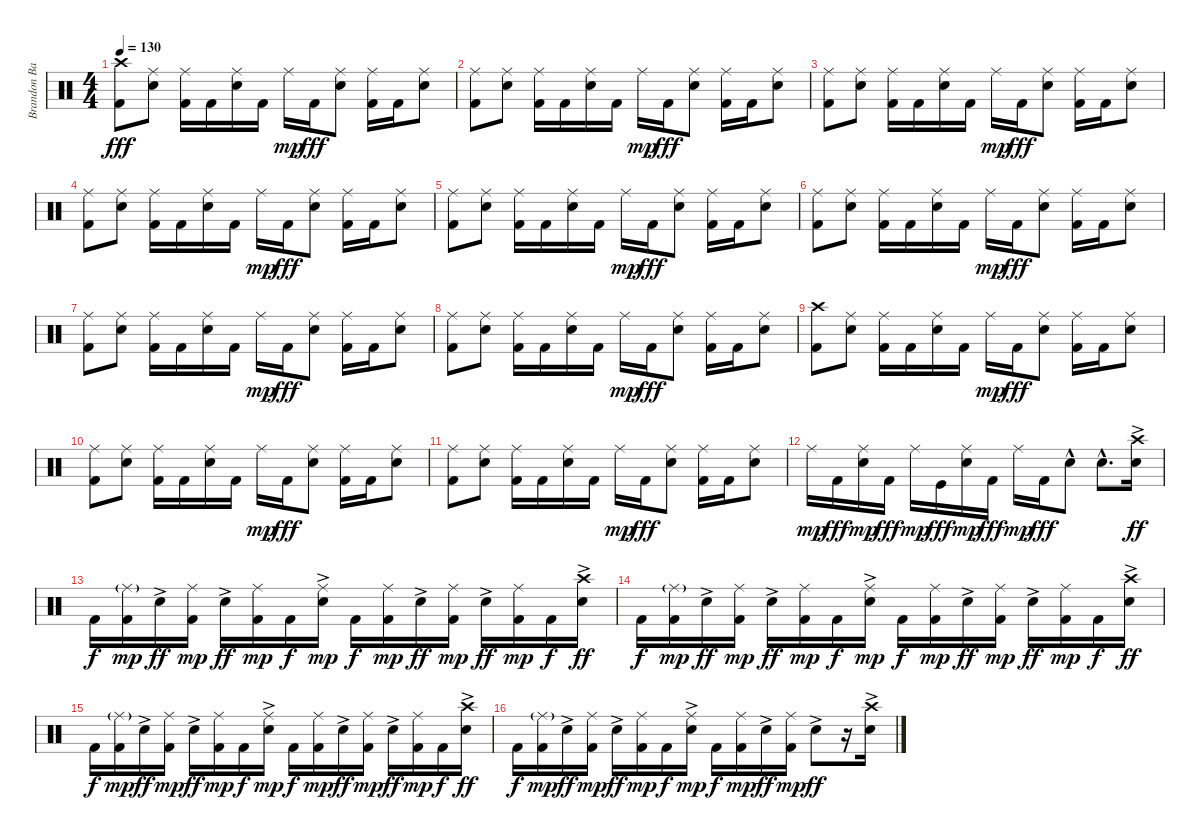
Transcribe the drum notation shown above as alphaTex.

\track ("Brandon Barnes - Drums" "Brandon Ba") {instrument percussion}
\staff {score}
\articulation defaults
\ts (4 4)
\tempo 130
\clef neutral
\ks c
("Crash high (hit)" "Kick (hit) 2").8{dy fff} ("Ride (middle)" "Snare (hit) 2").8 ("Ride (middle)" "Kick (hit) 2").16 "Kick (hit) 2".16 ("Ride (middle)" "Snare (hit) 2").16 "Kick (hit) 2".16 "Ride (middle)".16{dy mp} "Kick (hit) 2".16{dy fff} ("Ride (middle)" "Snare (hit) 2").8 ("Ride (middle)" "Kick (hit) 2").16 "Kick (hit) 2".16 ("Ride (middle)" "Snare (hit) 2").8 |
("Ride (middle)" "Kick (hit) 2").8 ("Ride (middle)" "Snare (hit) 2").8 ("Ride (middle)" "Kick (hit) 2").16 "Kick (hit) 2".16 ("Ride (middle)" "Snare (hit) 2").16 "Kick (hit) 2".16 "Ride (middle)".16{dy mp} "Kick (hit) 2".16{dy fff} ("Ride (middle)" "Snare (hit) 2").8 ("Ride (middle)" "Kick (hit) 2").16 "Kick (hit) 2".16 ("Ride (middle)" "Snare (hit) 2").8 |
("Ride (middle)" "Kick (hit) 2").8 ("Ride (middle)" "Snare (hit) 2").8 ("Ride (middle)" "Kick (hit) 2").16 "Kick (hit) 2".16 ("Ride (middle)" "Snare (hit) 2").16 "Kick (hit) 2".16 "Ride (middle)".16{dy mp} "Kick (hit) 2".16{dy fff} ("Ride (middle)" "Snare (hit) 2").8 ("Ride (middle)" "Kick (hit) 2").16 "Kick (hit) 2".16 ("Ride (middle)" "Snare (hit) 2").8 |
("Ride (middle)" "Kick (hit) 2").8 ("Ride (middle)" "Snare (hit) 2").8 ("Ride (middle)" "Kick (hit) 2").16 "Kick (hit) 2".16 ("Ride (middle)" "Snare (hit) 2").16 "Kick (hit) 2".16 "Ride (middle)".16{dy mp} "Kick (hit) 2".16{dy fff} ("Ride (middle)" "Snare (hit) 2").8 ("Ride (middle)" "Kick (hit) 2").16 "Kick (hit) 2".16 ("Ride (middle)" "Snare (hit) 2").8 |
("Ride (middle)" "Kick (hit) 2").8 ("Ride (middle)" "Snare (hit) 2").8 ("Ride (middle)" "Kick (hit) 2").16 "Kick (hit) 2".16 ("Ride (middle)" "Snare (hit) 2").16 "Kick (hit) 2".16 "Ride (middle)".16{dy mp} "Kick (hit) 2".16{dy fff} ("Ride (middle)" "Snare (hit) 2").8 ("Ride (middle)" "Kick (hit) 2").16 "Kick (hit) 2".16 ("Ride (middle)" "Snare (hit) 2").8 |
("Ride (middle)" "Kick (hit) 2").8 ("Ride (middle)" "Snare (hit) 2").8 ("Ride (middle)" "Kick (hit) 2").16 "Kick (hit) 2".16 ("Ride (middle)" "Snare (hit) 2").16 "Kick (hit) 2".16 "Ride (middle)".16{dy mp} "Kick (hit) 2".16{dy fff} ("Ride (middle)" "Snare (hit) 2").8 ("Ride (middle)" "Kick (hit) 2").16 "Kick (hit) 2".16 ("Ride (middle)" "Snare (hit) 2").8 |
("Ride (middle)" "Kick (hit) 2").8 ("Ride (middle)" "Snare (hit) 2").8 ("Ride (middle)" "Kick (hit) 2").16 "Kick (hit) 2".16 ("Ride (middle)" "Snare (hit) 2").16 "Kick (hit) 2".16 "Ride (middle)".16{dy mp} "Kick (hit) 2".16{dy fff} ("Ride (middle)" "Snare (hit) 2").8 ("Ride (middle)" "Kick (hit) 2").16 "Kick (hit) 2".16 ("Ride (middle)" "Snare (hit) 2").8 |
("Ride (middle)" "Kick (hit) 2").8 ("Ride (middle)" "Snare (hit) 2").8 ("Ride (middle)" "Kick (hit) 2").16 "Kick (hit) 2".16 ("Ride (middle)" "Snare (hit) 2").16 "Kick (hit) 2".16 "Ride (middle)".16{dy mp} "Kick (hit) 2".16{dy fff} ("Ride (middle)" "Snare (hit) 2").8 ("Ride (middle)" "Kick (hit) 2").16 "Kick (hit) 2".16 ("Ride (middle)" "Snare (hit) 2").8 |
("Crash high (hit)" "Kick (hit) 2").8 ("Ride (middle)" "Snare (hit) 2").8 ("Ride (middle)" "Kick (hit) 2").16 "Kick (hit) 2".16 ("Ride (middle)" "Snare (hit) 2").16 "Kick (hit) 2".16 "Ride (middle)".16{dy mp} "Kick (hit) 2".16{dy fff} ("Ride (middle)" "Snare (hit) 2").8 ("Ride (middle)" "Kick (hit) 2").16 "Kick (hit) 2".16 ("Ride (middle)" "Snare (hit) 2").8 |
("Ride (middle)" "Kick (hit) 2").8 ("Ride (middle)" "Snare (hit) 2").8 ("Ride (middle)" "Kick (hit) 2").16 "Kick (hit) 2".16 ("Ride (middle)" "Snare (hit) 2").16 "Kick (hit) 2".16 "Ride (middle)".16{dy mp} "Kick (hit) 2".16{dy fff} ("Ride (middle)" "Snare (hit) 2").8 ("Ride (middle)" "Kick (hit) 2").16 "Kick (hit) 2".16 ("Ride (middle)" "Snare (hit) 2").8 |
("Ride (middle)" "Kick (hit) 2").8 ("Ride (middle)" "Snare (hit) 2").8 ("Ride (middle)" "Kick (hit) 2").16 "Kick (hit) 2".16 ("Ride (middle)" "Snare (hit) 2").16 "Kick (hit) 2".16 "Ride (middle)".16{dy mp} "Kick (hit) 2".16{dy fff} ("Ride (middle)" "Snare (hit) 2").8 ("Ride (middle)" "Kick (hit) 2").16 "Kick (hit) 2".16 ("Ride (middle)" "Snare (hit) 2").8 |
"Ride (middle)".16{dy mp} "Kick (hit) 2".16{dy fff} ("Snare (hit) 2" "Ride (middle)").16{dy mp} "Kick (hit) 2".16{dy fff} "Ride (middle)".16{dy mp} "Kick (hit)".16{dy fff} ("Snare (hit) 2" "Ride (middle)").16{dy mp} "Kick (hit) 2".16{dy fff} "Ride (middle)".16{dy mp} "Kick (hit) 2".16{dy fff} "Snare (hit) 2"{hac}.8 "Snare (hit) 2"{hac}.8{d} ("Crash high (hit)"{ac} "Snare (hit) 2"{ac}).16{dy ff} |
"Kick (hit) 2".16{dy f} ("Kick (hit) 2" "Ride (middle)"{g}).16{dy mp} "Snare (hit) 2"{ac}.16{dy ff} ("Kick (hit) 2" "Ride (middle)").16{dy mp} "Snare (hit) 2"{ac}.16{dy ff} ("Kick (hit) 2" "Ride (middle)").16{dy mp} "Kick (hit) 2".16{dy f} ("Snare (hit) 2"{ac} "Ride (middle)").16{dy mp} "Kick (hit) 2".16{dy f} ("Kick (hit) 2" "Ride (middle)").16{dy mp} "Snare (hit) 2"{ac}.16{dy ff} ("Kick (hit) 2" "Ride (middle)").16{dy mp} "Snare (hit) 2"{ac}.16{dy ff} ("Kick (hit) 2" "Ride (middle)").16{dy mp} "Kick (hit) 2".16{dy f} ("Crash high (hit)"{ac} "Snare (hit) 2"{ac}).16{dy ff} |
"Kick (hit) 2".16{dy f} ("Kick (hit) 2" "Ride (middle)"{g}).16{dy mp} "Snare (hit) 2"{ac}.16{dy ff} ("Kick (hit) 2" "Ride (middle)").16{dy mp} "Snare (hit) 2"{ac}.16{dy ff} ("Kick (hit) 2" "Ride (middle)").16{dy mp} "Kick (hit) 2".16{dy f} ("Snare (hit) 2"{ac} "Ride (middle)").16{dy mp} "Kick (hit) 2".16{dy f} ("Kick (hit) 2" "Ride (middle)").16{dy mp} "Snare (hit) 2"{ac}.16{dy ff} ("Kick (hit) 2" "Ride (middle)").16{dy mp} "Snare (hit) 2"{ac}.16{dy ff} ("Kick (hit) 2" "Ride (middle)").16{dy mp} "Kick (hit) 2".16{dy f} ("Crash high (hit)"{ac} "Snare (hit) 2"{ac}).16{dy ff} |
"Kick (hit) 2".16{dy f} ("Kick (hit) 2" "Ride (middle)"{g}).16{dy mp} "Snare (hit) 2"{ac}.16{dy ff} ("Kick (hit) 2" "Ride (middle)").16{dy mp} "Snare (hit) 2"{ac}.16{dy ff} ("Kick (hit) 2" "Ride (middle)").16{dy mp} "Kick (hit) 2".16{dy f} ("Snare (hit) 2"{ac} "Ride (middle)").16{dy mp} "Kick (hit) 2".16{dy f} ("Kick (hit) 2" "Ride (middle)").16{dy mp} "Snare (hit) 2"{ac}.16{dy ff} ("Kick (hit) 2" "Ride (middle)").16{dy mp} "Snare (hit) 2"{ac}.16{dy ff} ("Kick (hit) 2" "Ride (middle)").16{dy mp} "Kick (hit) 2".16{dy f} ("Crash high (hit)"{ac} "Snare (hit) 2"{ac}).16{dy ff} |
"Kick (hit) 2".16{dy f} ("Kick (hit) 2" "Ride (middle)"{g}).16{dy mp} "Snare (hit) 2"{ac}.16{dy ff} ("Kick (hit) 2" "Ride (middle)").16{dy mp} "Snare (hit) 2"{ac}.16{dy ff} ("Kick (hit) 2" "Ride (middle)").16{dy mp} "Kick (hit) 2".16{dy f} ("Snare (hit) 2"{ac} "Ride (middle)").16{dy mp} "Kick (hit) 2".16{dy f} ("Kick (hit) 2" "Ride (middle)").16{dy mp} "Snare (hit) 2"{ac}.16{dy ff} ("Kick (hit) 2" "Ride (middle)").16{dy mp} "Snare (hit) 2"{ac}.8{dy ff} r.16 ("Crash high (hit)"{ac} "Snare (hit) 2"{ac}).16
